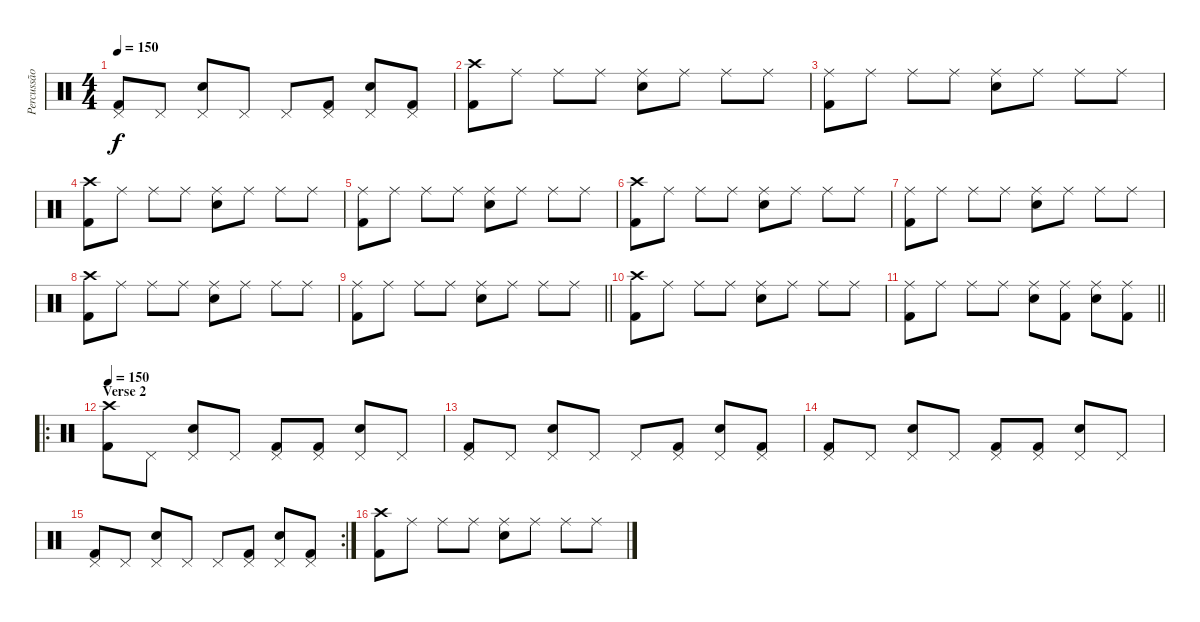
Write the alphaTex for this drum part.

\track ("Percussão" "Percussão") {instrument percussion}
\staff {score}
\articulation defaults
\ts (4 4)
\tempo 150
\clef neutral
\ks c
("Pedal Hi-Hat (hit)" "Kick (hit) 2").8{dy f} "Pedal Hi-Hat (hit)".8 ("Pedal Hi-Hat (hit)" "Snare (hit) 2").8 "Pedal Hi-Hat (hit)".8 "Pedal Hi-Hat (hit)".8 ("Pedal Hi-Hat (hit)" "Kick (hit) 2").8 ("Pedal Hi-Hat (hit)" "Snare (hit) 2").8 ("Pedal Hi-Hat (hit)" "Kick (hit) 2").8 |
("Crash high (hit)" "Kick (hit) 2").8 "Ride (middle)".8 "Ride (middle)".8 "Ride (middle)".8 ("Ride (middle)" "Snare (hit) 2").8 "Ride (middle)".8 "Ride (middle)".8 "Ride (middle)".8 |
("Ride (middle)" "Kick (hit) 2").8 "Ride (middle)".8 "Ride (middle)".8 "Ride (middle)".8 ("Ride (middle)" "Snare (hit) 2").8 "Ride (middle)".8 "Ride (middle)".8 "Ride (middle)".8 |
("Crash high (hit)" "Kick (hit) 2").8 "Ride (middle)".8 "Ride (middle)".8 "Ride (middle)".8 ("Ride (middle)" "Snare (hit) 2").8 "Ride (middle)".8 "Ride (middle)".8 "Ride (middle)".8 |
("Ride (middle)" "Kick (hit) 2").8 "Ride (middle)".8 "Ride (middle)".8 "Ride (middle)".8 ("Ride (middle)" "Snare (hit) 2").8 "Ride (middle)".8 "Ride (middle)".8 "Ride (middle)".8 |
("Crash high (hit)" "Kick (hit) 2").8 "Ride (middle)".8 "Ride (middle)".8 "Ride (middle)".8 ("Ride (middle)" "Snare (hit) 2").8 "Ride (middle)".8 "Ride (middle)".8 "Ride (middle)".8 |
("Ride (middle)" "Kick (hit) 2").8 "Ride (middle)".8 "Ride (middle)".8 "Ride (middle)".8 ("Ride (middle)" "Snare (hit) 2").8 "Ride (middle)".8 "Ride (middle)".8 "Ride (middle)".8 |
("Crash high (hit)" "Kick (hit) 2").8 "Ride (middle)".8 "Ride (middle)".8 "Ride (middle)".8 ("Ride (middle)" "Snare (hit) 2").8 "Ride (middle)".8 "Ride (middle)".8 "Ride (middle)".8 |
\barLineRight lightlight
("Ride (middle)" "Kick (hit) 2").8 "Ride (middle)".8 "Ride (middle)".8 "Ride (middle)".8 ("Ride (middle)" "Snare (hit) 2").8 "Ride (middle)".8 "Ride (middle)".8 "Ride (middle)".8 |
("Crash high (hit)" "Kick (hit) 2").8 "Ride (middle)".8 "Ride (middle)".8 "Ride (middle)".8 ("Ride (middle)" "Snare (hit) 2").8 "Ride (middle)".8 "Ride (middle)".8 "Ride (middle)".8 |
\barLineRight lightlight
("Ride (middle)" "Kick (hit) 2").8 "Ride (middle)".8 "Ride (middle)".8 "Ride (middle)".8 ("Ride (middle)" "Snare (hit) 2").8 ("Ride (middle)" "Kick (hit) 2").8 ("Ride (middle)" "Snare (hit) 2").8 ("Ride (middle)" "Kick (hit) 2").8 |
\ro
\section ("" "Verse 2")
\tempo 150
("Crash high (hit)" "Kick (hit) 2").8 "Pedal Hi-Hat (hit)".8 ("Pedal Hi-Hat (hit)" "Snare (hit) 2").8 "Pedal Hi-Hat (hit)".8 ("Pedal Hi-Hat (hit)" "Kick (hit) 2").8 ("Pedal Hi-Hat (hit)" "Kick (hit) 2").8 ("Pedal Hi-Hat (hit)" "Snare (hit) 2").8 "Pedal Hi-Hat (hit)".8 |
("Pedal Hi-Hat (hit)" "Kick (hit) 2").8 "Pedal Hi-Hat (hit)".8 ("Pedal Hi-Hat (hit)" "Snare (hit) 2").8 "Pedal Hi-Hat (hit)".8 "Pedal Hi-Hat (hit)".8 ("Pedal Hi-Hat (hit)" "Kick (hit) 2").8 ("Pedal Hi-Hat (hit)" "Snare (hit) 2").8 ("Pedal Hi-Hat (hit)" "Kick (hit) 2").8 |
("Pedal Hi-Hat (hit)" "Kick (hit) 2").8 "Pedal Hi-Hat (hit)".8 ("Pedal Hi-Hat (hit)" "Snare (hit) 2").8 "Pedal Hi-Hat (hit)".8 ("Pedal Hi-Hat (hit)" "Kick (hit) 2").8 ("Pedal Hi-Hat (hit)" "Kick (hit) 2").8 ("Pedal Hi-Hat (hit)" "Snare (hit) 2").8 "Pedal Hi-Hat (hit)".8 |
\rc 2
("Pedal Hi-Hat (hit)" "Kick (hit) 2").8 "Pedal Hi-Hat (hit)".8 ("Pedal Hi-Hat (hit)" "Snare (hit) 2").8 "Pedal Hi-Hat (hit)".8 "Pedal Hi-Hat (hit)".8 ("Pedal Hi-Hat (hit)" "Kick (hit) 2").8 ("Pedal Hi-Hat (hit)" "Snare (hit) 2").8 ("Pedal Hi-Hat (hit)" "Kick (hit) 2").8 |
("Crash high (hit)" "Kick (hit) 2").8 "Ride (middle)".8 "Ride (middle)".8 "Ride (middle)".8 ("Ride (middle)" "Snare (hit) 2").8 "Ride (middle)".8 "Ride (middle)".8 "Ride (middle)".8
